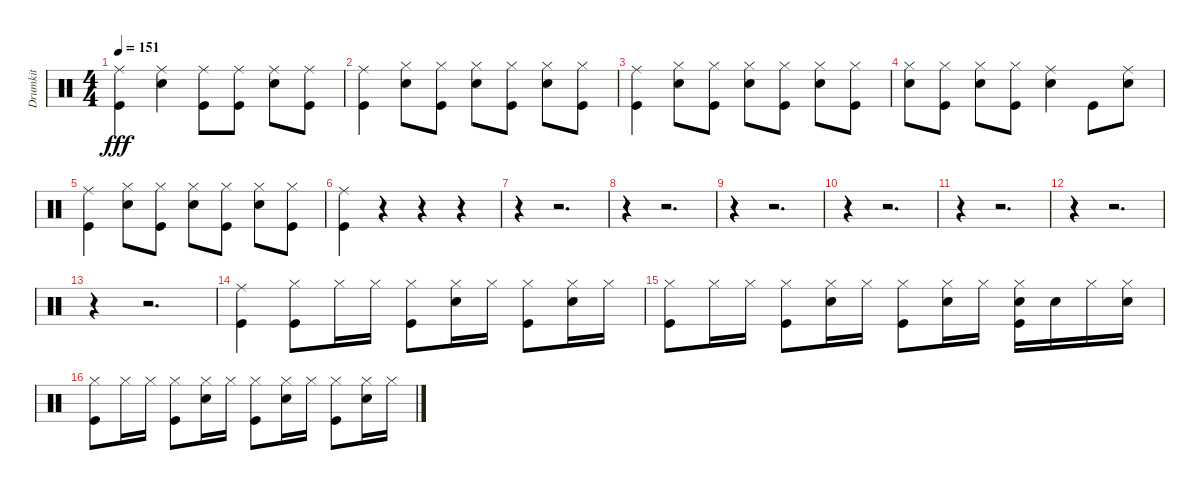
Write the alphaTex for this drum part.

\track ("Drumkit" "Drumkit") {instrument percussion}
\staff {score}
\articulation defaults
\ts (4 4)
\tempo 151
\clef neutral
\ks c
("Ride (middle)" "Kick (hit)").4{dy fff} ("Ride (middle)" "Snare (hit) 2").4 ("Kick (hit)" "Ride (middle)").8 ("Kick (hit)" "Ride (middle)").8 ("Snare (hit) 2" "Ride (middle)").8 ("Kick (hit)" "Ride (middle)").8 |
("Ride (middle)" "Kick (hit)").4 ("Hi-Hat (closed)" "Snare (hit) 2").8 ("Hi-Hat (closed)" "Kick (hit)").8 ("Snare (hit) 2" "Hi-Hat (closed)").8 ("Kick (hit)" "Hi-Hat (closed)").8 ("Snare (hit) 2" "Hi-Hat (closed)").8 ("Kick (hit)" "Hi-Hat (closed)").8 |
("Ride (middle)" "Kick (hit)").4 ("Hi-Hat (closed)" "Snare (hit) 2").8 ("Hi-Hat (closed)" "Kick (hit)").8 ("Snare (hit) 2" "Hi-Hat (closed)").8 ("Kick (hit)" "Hi-Hat (closed)").8 ("Snare (hit) 2" "Hi-Hat (closed)").8 ("Kick (hit)" "Hi-Hat (closed)").8 |
("Snare (hit) 2" "Hi-Hat (closed)").8 ("Kick (hit)" "Hi-Hat (closed)").8 ("Snare (hit) 2" "Hi-Hat (closed)").8 ("Kick (hit)" "Hi-Hat (closed)").8 ("Ride (middle)" "Snare (hit) 2").4 "Kick (hit)".8 ("Ride (middle)" "Snare (hit) 2").8 |
("Ride (middle)" "Kick (hit)").4 ("Hi-Hat (closed)" "Snare (hit) 2").8 ("Hi-Hat (closed)" "Kick (hit)").8 ("Snare (hit) 2" "Hi-Hat (closed)").8 ("Kick (hit)" "Hi-Hat (closed)").8 ("Snare (hit) 2" "Hi-Hat (closed)").8 ("Kick (hit)" "Hi-Hat (closed)").8 |
("Ride (middle)" "Kick (hit)").4 r.4 r.4 r.4 |
r.4 r.2{d} |
r.4 r.2{d} |
r.4 r.2{d} |
r.4 r.2{d} |
r.4 r.2{d} |
r.4 r.2{d} |
r.4 r.2{d} |
("Kick (hit)" "Ride (middle)").4 ("Hi-Hat (closed)" "Kick (hit)").8 "Hi-Hat (closed)".16 "Hi-Hat (closed)".16 ("Hi-Hat (closed)" "Kick (hit)").8 ("Snare (hit) 2" "Hi-Hat (closed)").16 "Hi-Hat (closed)".16 ("Hi-Hat (closed)" "Kick (hit)").8 ("Snare (hit) 2" "Hi-Hat (closed)").16 "Hi-Hat (closed)".16 |
("Hi-Hat (closed)" "Kick (hit)").8 "Hi-Hat (closed)".16 "Hi-Hat (closed)".16 ("Hi-Hat (closed)" "Kick (hit)").8 ("Snare (hit) 2" "Hi-Hat (closed)").16 "Hi-Hat (closed)".16 ("Hi-Hat (closed)" "Kick (hit)").8 ("Snare (hit) 2" "Hi-Hat (closed)").16 "Hi-Hat (closed)".16 ("Hi-Hat (closed)" "Kick (hit)" "Snare (hit) 2").16 "Snare (hit) 2".16 "Hi-Hat (closed)".16 ("Hi-Hat (closed)" "Snare (hit) 2").16 |
("Hi-Hat (closed)" "Kick (hit)").8 "Hi-Hat (closed)".16 "Hi-Hat (closed)".16 ("Hi-Hat (closed)" "Kick (hit)").8 ("Snare (hit) 2" "Hi-Hat (closed)").16 "Hi-Hat (closed)".16 ("Hi-Hat (closed)" "Kick (hit)").8 ("Snare (hit) 2" "Hi-Hat (closed)").16 "Hi-Hat (closed)".16 ("Hi-Hat (closed)" "Kick (hit)").8 ("Snare (hit) 2" "Hi-Hat (closed)").16 "Hi-Hat (closed)".16
